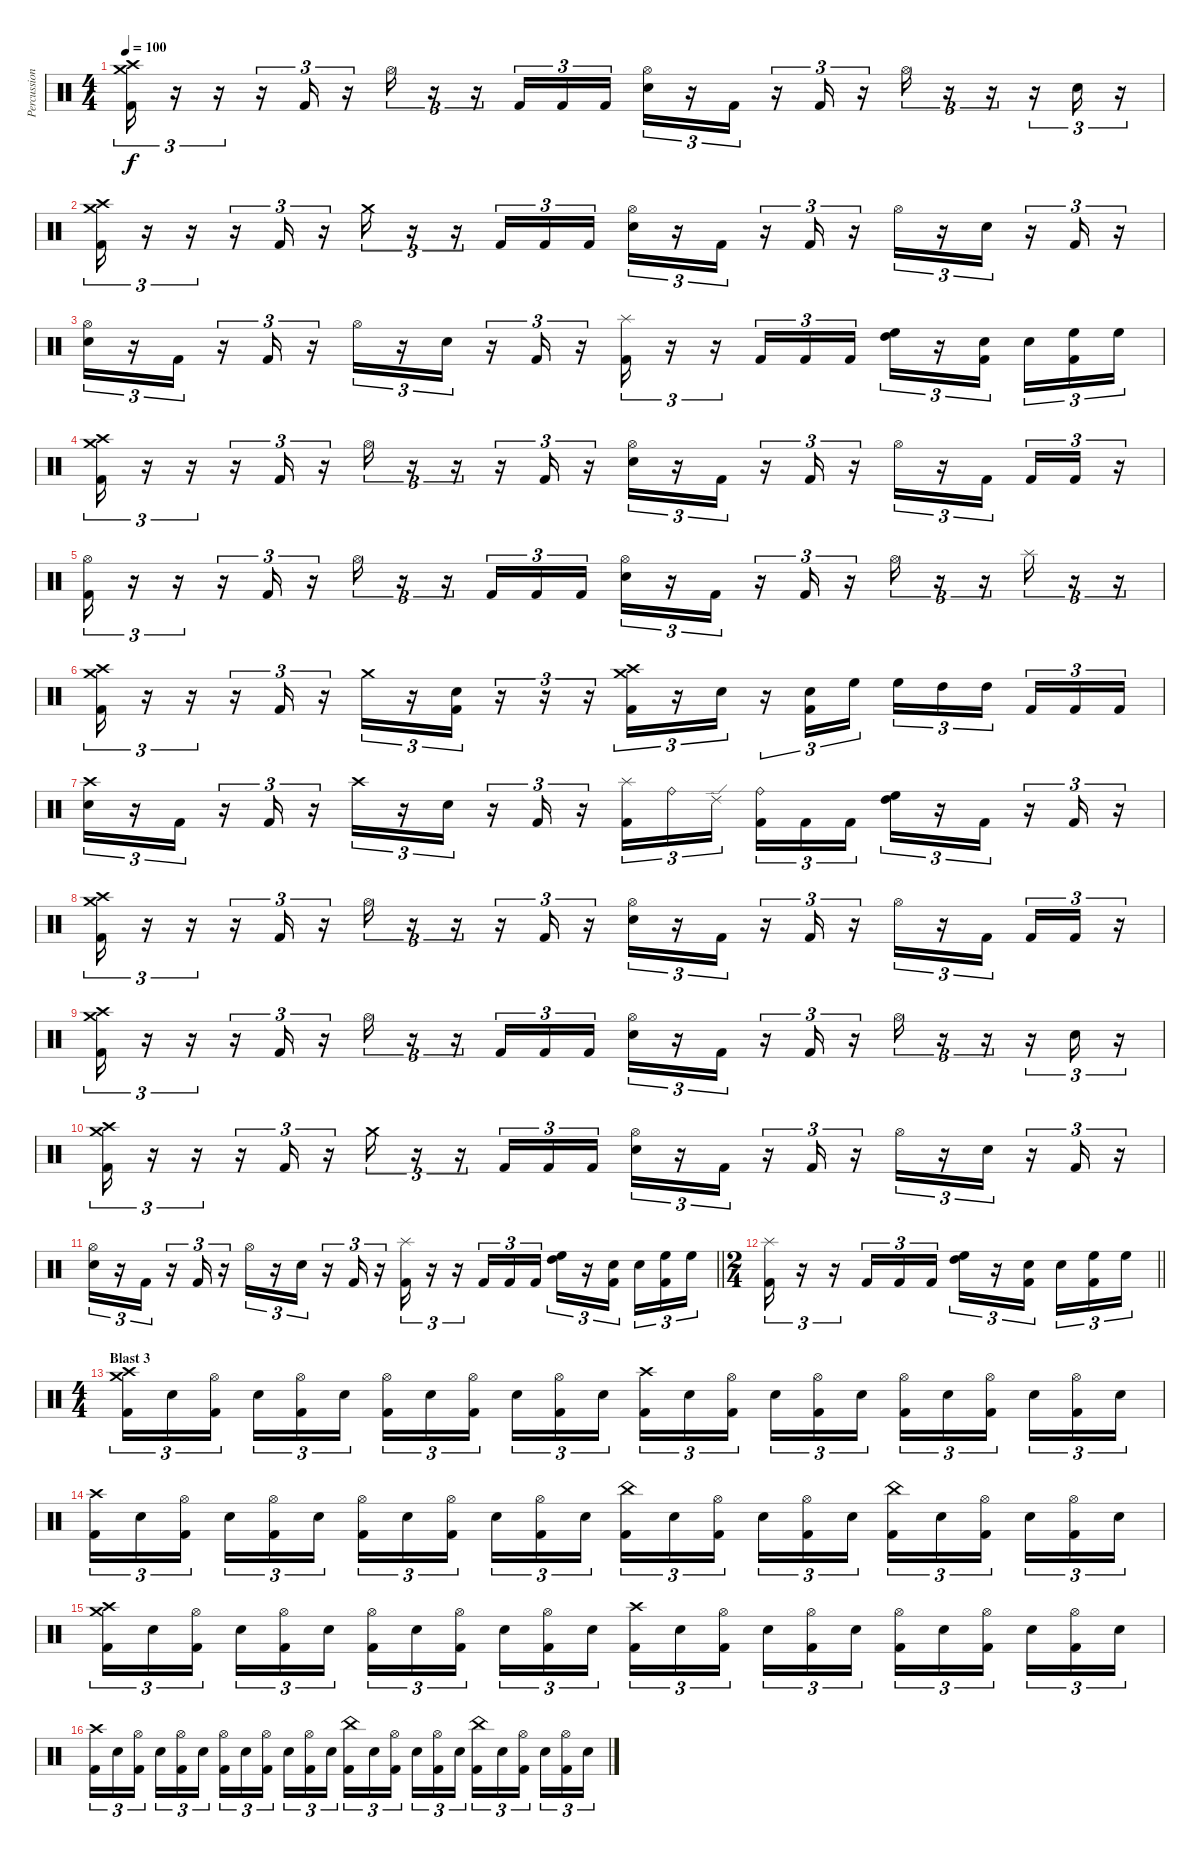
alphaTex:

\track ("Percussion" "Percussion") {instrument percussion}
\staff {score}
\articulation defaults
\ts (4 4)
\tempo 100
\clef neutral
\ks c
("Crash high (hit)" "Crash medium (hit)" "Kick (hit) 2").16{tu (3 2) dy f} r.16{tu (3 2)} r.16{tu (3 2)} r.16{tu (3 2)} "Kick (hit) 2".16{tu (3 2)} r.16{tu (3 2)} "Hi-Hat (open)".16{tu (3 2)} r.16{tu (3 2)} r.16{tu (3 2)} "Kick (hit) 2".16{tu (3 2)} "Kick (hit) 2".16{tu (3 2)} "Kick (hit) 2".16{tu (3 2)} ("Hi-Hat (open)" "Electric Snare (hit)").16{tu (3 2)} r.16{tu (3 2)} "Kick (hit) 2".16{tu (3 2)} r.16{tu (3 2)} "Kick (hit) 2".16{tu (3 2)} r.16{tu (3 2)} "Hi-Hat (open)".16{tu (3 2)} r.16{tu (3 2)} r.16{tu (3 2)} r.16{tu (3 2)} "Electric Snare (hit)".16{tu (3 2)} r.16{tu (3 2)} |
("Crash high (hit)" "Crash medium (hit)" "Kick (hit) 2").16{tu (3 2)} r.16{tu (3 2)} r.16{tu (3 2)} r.16{tu (3 2)} "Kick (hit) 2".16{tu (3 2)} r.16{tu (3 2)} "Crash medium (hit)".16{tu (3 2)} r.16{tu (3 2)} r.16{tu (3 2)} "Kick (hit) 2".16{tu (3 2)} "Kick (hit) 2".16{tu (3 2)} "Kick (hit) 2".16{tu (3 2)} ("Hi-Hat (open)" "Electric Snare (hit)").16{tu (3 2)} r.16{tu (3 2)} "Kick (hit) 2".16{tu (3 2)} r.16{tu (3 2)} "Kick (hit) 2".16{tu (3 2)} r.16{tu (3 2)} "Hi-Hat (open)".16{tu (3 2)} r.16{tu (3 2)} "Electric Snare (hit)".16{tu (3 2)} r.16{tu (3 2)} "Kick (hit) 2".16{tu (3 2)} r.16{tu (3 2)} |
("Hi-Hat (open)" "Electric Snare (hit)").16{tu (3 2)} r.16{tu (3 2)} "Kick (hit) 2".16{tu (3 2)} r.16{tu (3 2)} "Kick (hit) 2".16{tu (3 2)} r.16{tu (3 2)} "Hi-Hat (open)".16{tu (3 2)} r.16{tu (3 2)} "Electric Snare (hit)".16{tu (3 2)} r.16{tu (3 2)} "Kick (hit) 2".16{tu (3 2)} r.16{tu (3 2)} ("Splash (hit)" "Kick (hit) 2").16{tu (3 2)} r.16{tu (3 2)} r.16{tu (3 2)} "Kick (hit) 2".16{tu (3 2)} "Kick (hit) 2".16{tu (3 2)} "Kick (hit) 2".16{tu (3 2)} ("High Floor Tom (hit)" "High Tom (hit)").16{tu (3 2)} r.16{tu (3 2)} ("Electric Snare (hit)" "Kick (hit) 2").16{tu (3 2) beam splitsecondary} "Electric Snare (hit)".16{tu (3 2)} ("High Floor Tom (hit)" "Kick (hit) 2").16{tu (3 2)} "High Floor Tom (hit)".16{tu (3 2)} |
("Crash high (hit)" "Crash medium (hit)" "Kick (hit) 2").16{tu (3 2)} r.16{tu (3 2)} r.16{tu (3 2)} r.16{tu (3 2)} "Kick (hit) 2".16{tu (3 2)} r.16{tu (3 2)} "Hi-Hat (open)".16{tu (3 2)} r.16{tu (3 2)} r.16{tu (3 2)} r.16{tu (3 2)} "Kick (hit) 2".16{tu (3 2)} r.16{tu (3 2)} ("Hi-Hat (open)" "Electric Snare (hit)").16{tu (3 2)} r.16{tu (3 2)} "Kick (hit) 2".16{tu (3 2)} r.16{tu (3 2)} "Kick (hit) 2".16{tu (3 2)} r.16{tu (3 2)} "Hi-Hat (open)".16{tu (3 2)} r.16{tu (3 2)} "Kick (hit) 2".16{tu (3 2) beam splitsecondary} "Kick (hit) 2".16{tu (3 2)} "Kick (hit) 2".16{tu (3 2)} r.16{tu (3 2)} |
("Hi-Hat (open)" "Kick (hit) 2").16{tu (3 2)} r.16{tu (3 2)} r.16{tu (3 2)} r.16{tu (3 2)} "Kick (hit) 2".16{tu (3 2)} r.16{tu (3 2)} "Hi-Hat (open)".16{tu (3 2)} r.16{tu (3 2)} r.16{tu (3 2)} "Kick (hit) 2".16{tu (3 2)} "Kick (hit) 2".16{tu (3 2)} "Kick (hit) 2".16{tu (3 2)} ("Hi-Hat (open)" "Electric Snare (hit)").16{tu (3 2)} r.16{tu (3 2)} "Kick (hit) 2".16{tu (3 2)} r.16{tu (3 2)} "Kick (hit) 2".16{tu (3 2)} r.16{tu (3 2)} "Hi-Hat (open)".16{tu (3 2)} r.16{tu (3 2)} r.16{tu (3 2)} "Splash (hit)".16{tu (3 2)} r.16{tu (3 2)} r.16{tu (3 2)} |
("Crash high (hit)" "Crash medium (hit)" "Kick (hit) 2").16{tu (3 2)} r.16{tu (3 2)} r.16{tu (3 2)} r.16{tu (3 2)} "Kick (hit) 2".16{tu (3 2)} r.16{tu (3 2)} "Crash medium (hit)".16{tu (3 2)} r.16{tu (3 2)} ("Electric Snare (hit)" "Kick (hit) 2").16{tu (3 2)} r.16{tu (3 2)} r.16{tu (3 2)} r.16{tu (3 2)} ("Crash high (hit)" "Crash medium (hit)" "Kick (hit) 2").16{tu (3 2)} r.16{tu (3 2)} "Electric Snare (hit)".16{tu (3 2)} r.16{tu (3 2)} ("Electric Snare (hit)" "Kick (hit) 2").16{tu (3 2)} "High Floor Tom (hit)".16{tu (3 2)} "High Floor Tom (hit)".16{tu (3 2)} "High Tom (hit)".16{tu (3 2)} "High Tom (hit)".16{tu (3 2) beam splitsecondary} "Kick (hit) 2".16{tu (3 2)} "Kick (hit) 2".16{tu (3 2)} "Kick (hit) 2".16{tu (3 2)} |
("Crash high (hit)" "Electric Snare (hit)").16{tu (3 2)} r.16{tu (3 2)} "Kick (hit) 2".16{tu (3 2)} r.16{tu (3 2)} "Kick (hit) 2".16{tu (3 2)} r.16{tu (3 2)} "Crash high (hit)".16{tu (3 2)} r.16{tu (3 2)} "Electric Snare (hit)".16{tu (3 2)} r.16{tu (3 2)} "Kick (hit) 2".16{tu (3 2)} r.16{tu (3 2)} ("Splash (hit)" "Kick (hit) 2").16{tu (3 2)} "Ride (bell)".16{tu (3 2)} "Ride (edge) 2".16{tu (3 2) beam splitsecondary} ("Ride (bell)" "Kick (hit) 2").16{tu (3 2)} "Kick (hit) 2".16{tu (3 2)} "Kick (hit) 2".16{tu (3 2)} ("High Floor Tom (hit)" "High Tom (hit)").16{tu (3 2)} r.16{tu (3 2)} "Kick (hit) 2".16{tu (3 2)} r.16{tu (3 2)} "Kick (hit) 2".16{tu (3 2)} r.16{tu (3 2)} |
("Crash high (hit)" "Crash medium (hit)" "Kick (hit) 2").16{tu (3 2)} r.16{tu (3 2)} r.16{tu (3 2)} r.16{tu (3 2)} "Kick (hit) 2".16{tu (3 2)} r.16{tu (3 2)} "Hi-Hat (open)".16{tu (3 2)} r.16{tu (3 2)} r.16{tu (3 2)} r.16{tu (3 2)} "Kick (hit) 2".16{tu (3 2)} r.16{tu (3 2)} ("Hi-Hat (open)" "Electric Snare (hit)").16{tu (3 2)} r.16{tu (3 2)} "Kick (hit) 2".16{tu (3 2)} r.16{tu (3 2)} "Kick (hit) 2".16{tu (3 2)} r.16{tu (3 2)} "Hi-Hat (open)".16{tu (3 2)} r.16{tu (3 2)} "Kick (hit) 2".16{tu (3 2) beam splitsecondary} "Kick (hit) 2".16{tu (3 2)} "Kick (hit) 2".16{tu (3 2)} r.16{tu (3 2)} |
("Crash high (hit)" "Crash medium (hit)" "Kick (hit) 2").16{tu (3 2)} r.16{tu (3 2)} r.16{tu (3 2)} r.16{tu (3 2)} "Kick (hit) 2".16{tu (3 2)} r.16{tu (3 2)} "Hi-Hat (open)".16{tu (3 2)} r.16{tu (3 2)} r.16{tu (3 2)} "Kick (hit) 2".16{tu (3 2)} "Kick (hit) 2".16{tu (3 2)} "Kick (hit) 2".16{tu (3 2)} ("Hi-Hat (open)" "Electric Snare (hit)").16{tu (3 2)} r.16{tu (3 2)} "Kick (hit) 2".16{tu (3 2)} r.16{tu (3 2)} "Kick (hit) 2".16{tu (3 2)} r.16{tu (3 2)} "Hi-Hat (open)".16{tu (3 2)} r.16{tu (3 2)} r.16{tu (3 2)} r.16{tu (3 2)} "Electric Snare (hit)".16{tu (3 2)} r.16{tu (3 2)} |
("Crash high (hit)" "Crash medium (hit)" "Kick (hit) 2").16{tu (3 2)} r.16{tu (3 2)} r.16{tu (3 2)} r.16{tu (3 2)} "Kick (hit) 2".16{tu (3 2)} r.16{tu (3 2)} "Crash medium (hit)".16{tu (3 2)} r.16{tu (3 2)} r.16{tu (3 2)} "Kick (hit) 2".16{tu (3 2)} "Kick (hit) 2".16{tu (3 2)} "Kick (hit) 2".16{tu (3 2)} ("Hi-Hat (open)" "Electric Snare (hit)").16{tu (3 2)} r.16{tu (3 2)} "Kick (hit) 2".16{tu (3 2)} r.16{tu (3 2)} "Kick (hit) 2".16{tu (3 2)} r.16{tu (3 2)} "Hi-Hat (open)".16{tu (3 2)} r.16{tu (3 2)} "Electric Snare (hit)".16{tu (3 2)} r.16{tu (3 2)} "Kick (hit) 2".16{tu (3 2)} r.16{tu (3 2)} |
\barLineRight lightlight
("Hi-Hat (open)" "Electric Snare (hit)").16{tu (3 2)} r.16{tu (3 2)} "Kick (hit) 2".16{tu (3 2)} r.16{tu (3 2)} "Kick (hit) 2".16{tu (3 2)} r.16{tu (3 2)} "Hi-Hat (open)".16{tu (3 2)} r.16{tu (3 2)} "Electric Snare (hit)".16{tu (3 2)} r.16{tu (3 2)} "Kick (hit) 2".16{tu (3 2)} r.16{tu (3 2)} ("Splash (hit)" "Kick (hit) 2").16{tu (3 2)} r.16{tu (3 2)} r.16{tu (3 2)} "Kick (hit) 2".16{tu (3 2)} "Kick (hit) 2".16{tu (3 2)} "Kick (hit) 2".16{tu (3 2)} ("High Floor Tom (hit)" "High Tom (hit)").16{tu (3 2)} r.16{tu (3 2)} ("Electric Snare (hit)" "Kick (hit) 2").16{tu (3 2) beam splitsecondary} "Electric Snare (hit)".16{tu (3 2)} ("High Floor Tom (hit)" "Kick (hit) 2").16{tu (3 2)} "High Floor Tom (hit)".16{tu (3 2)} |
\ts (2 4)
\barLineRight lightlight
("Splash (hit)" "Kick (hit) 2").16{tu (3 2)} r.16{tu (3 2)} r.16{tu (3 2)} "Kick (hit) 2".16{tu (3 2)} "Kick (hit) 2".16{tu (3 2)} "Kick (hit) 2".16{tu (3 2)} ("High Floor Tom (hit)" "High Tom (hit)").16{tu (3 2)} r.16{tu (3 2)} ("Electric Snare (hit)" "Kick (hit) 2").16{tu (3 2) beam splitsecondary} "Electric Snare (hit)".16{tu (3 2)} ("High Floor Tom (hit)" "Kick (hit) 2").16{tu (3 2)} "High Floor Tom (hit)".16{tu (3 2)} |
\ts (4 4)
\section ("" "Blast 3")
("Crash medium (hit)" "Crash high (hit)" "Kick (hit) 2").16{tu (3 2)} "Electric Snare (hit)".16{tu (3 2)} ("Hi-Hat (open)" "Kick (hit) 2").16{tu (3 2) beam splitsecondary} "Electric Snare (hit)".16{tu (3 2)} ("Hi-Hat (open)" "Kick (hit) 2").16{tu (3 2)} "Electric Snare (hit)".16{tu (3 2)} ("Hi-Hat (open)" "Kick (hit) 2").16{tu (3 2)} "Electric Snare (hit)".16{tu (3 2)} ("Hi-Hat (open)" "Kick (hit) 2").16{tu (3 2) beam splitsecondary} "Electric Snare (hit)".16{tu (3 2)} ("Hi-Hat (open)" "Kick (hit) 2").16{tu (3 2)} "Electric Snare (hit)".16{tu (3 2)} ("Crash high (hit)" "Kick (hit) 2").16{tu (3 2)} "Electric Snare (hit)".16{tu (3 2)} ("Hi-Hat (open)" "Kick (hit) 2").16{tu (3 2) beam splitsecondary} "Electric Snare (hit)".16{tu (3 2)} ("Hi-Hat (open)" "Kick (hit) 2").16{tu (3 2)} "Electric Snare (hit)".16{tu (3 2)} ("Hi-Hat (open)" "Kick (hit) 2").16{tu (3 2)} "Electric Snare (hit)".16{tu (3 2)} ("Hi-Hat (open)" "Kick (hit) 2").16{tu (3 2) beam splitsecondary} "Electric Snare (hit)".16{tu (3 2)} ("Hi-Hat (open)" "Kick (hit) 2").16{tu (3 2)} "Electric Snare (hit)".16{tu (3 2)} |
("Crash high (hit)" "Kick (hit) 2").16{tu (3 2)} "Electric Snare (hit)".16{tu (3 2)} ("Hi-Hat (open)" "Kick (hit) 2").16{tu (3 2) beam splitsecondary} "Electric Snare (hit)".16{tu (3 2)} ("Hi-Hat (open)" "Kick (hit) 2").16{tu (3 2)} "Electric Snare (hit)".16{tu (3 2)} ("Hi-Hat (open)" "Kick (hit) 2").16{tu (3 2)} "Electric Snare (hit)".16{tu (3 2)} ("Hi-Hat (open)" "Kick (hit) 2").16{tu (3 2) beam splitsecondary} "Electric Snare (hit)".16{tu (3 2)} ("Hi-Hat (open)" "Kick (hit) 2").16{tu (3 2)} "Electric Snare (hit)".16{tu (3 2)} ("China (hit)" "Kick (hit) 2").16{tu (3 2)} "Electric Snare (hit)".16{tu (3 2)} ("Hi-Hat (open)" "Kick (hit) 2").16{tu (3 2) beam splitsecondary} "Electric Snare (hit)".16{tu (3 2)} ("Hi-Hat (open)" "Kick (hit) 2").16{tu (3 2)} "Electric Snare (hit)".16{tu (3 2)} ("China (hit)" "Kick (hit) 2").16{tu (3 2)} "Electric Snare (hit)".16{tu (3 2)} ("Hi-Hat (open)" "Kick (hit) 2").16{tu (3 2) beam splitsecondary} "Electric Snare (hit)".16{tu (3 2)} ("Hi-Hat (open)" "Kick (hit) 2").16{tu (3 2)} "Electric Snare (hit)".16{tu (3 2)} |
("Crash medium (hit)" "Crash high (hit)" "Kick (hit) 2").16{tu (3 2)} "Electric Snare (hit)".16{tu (3 2)} ("Hi-Hat (open)" "Kick (hit) 2").16{tu (3 2) beam splitsecondary} "Electric Snare (hit)".16{tu (3 2)} ("Hi-Hat (open)" "Kick (hit) 2").16{tu (3 2)} "Electric Snare (hit)".16{tu (3 2)} ("Hi-Hat (open)" "Kick (hit) 2").16{tu (3 2)} "Electric Snare (hit)".16{tu (3 2)} ("Hi-Hat (open)" "Kick (hit) 2").16{tu (3 2) beam splitsecondary} "Electric Snare (hit)".16{tu (3 2)} ("Hi-Hat (open)" "Kick (hit) 2").16{tu (3 2)} "Electric Snare (hit)".16{tu (3 2)} ("Crash high (hit)" "Kick (hit) 2").16{tu (3 2)} "Electric Snare (hit)".16{tu (3 2)} ("Hi-Hat (open)" "Kick (hit) 2").16{tu (3 2) beam splitsecondary} "Electric Snare (hit)".16{tu (3 2)} ("Hi-Hat (open)" "Kick (hit) 2").16{tu (3 2)} "Electric Snare (hit)".16{tu (3 2)} ("Hi-Hat (open)" "Kick (hit) 2").16{tu (3 2)} "Electric Snare (hit)".16{tu (3 2)} ("Hi-Hat (open)" "Kick (hit) 2").16{tu (3 2) beam splitsecondary} "Electric Snare (hit)".16{tu (3 2)} ("Hi-Hat (open)" "Kick (hit) 2").16{tu (3 2)} "Electric Snare (hit)".16{tu (3 2)} |
("Crash high (hit)" "Kick (hit) 2").16{tu (3 2)} "Electric Snare (hit)".16{tu (3 2)} ("Hi-Hat (open)" "Kick (hit) 2").16{tu (3 2) beam splitsecondary} "Electric Snare (hit)".16{tu (3 2)} ("Hi-Hat (open)" "Kick (hit) 2").16{tu (3 2)} "Electric Snare (hit)".16{tu (3 2)} ("Hi-Hat (open)" "Kick (hit) 2").16{tu (3 2)} "Electric Snare (hit)".16{tu (3 2)} ("Hi-Hat (open)" "Kick (hit) 2").16{tu (3 2) beam splitsecondary} "Electric Snare (hit)".16{tu (3 2)} ("Hi-Hat (open)" "Kick (hit) 2").16{tu (3 2)} "Electric Snare (hit)".16{tu (3 2)} ("China (hit)" "Kick (hit) 2").16{tu (3 2)} "Electric Snare (hit)".16{tu (3 2)} ("Hi-Hat (open)" "Kick (hit) 2").16{tu (3 2) beam splitsecondary} "Electric Snare (hit)".16{tu (3 2)} ("Hi-Hat (open)" "Kick (hit) 2").16{tu (3 2)} "Electric Snare (hit)".16{tu (3 2)} ("China (hit)" "Kick (hit) 2").16{tu (3 2)} "Electric Snare (hit)".16{tu (3 2)} ("Hi-Hat (open)" "Kick (hit) 2").16{tu (3 2) beam splitsecondary} "Electric Snare (hit)".16{tu (3 2)} ("Hi-Hat (open)" "Kick (hit) 2").16{tu (3 2)} "Electric Snare (hit)".16{tu (3 2)}
